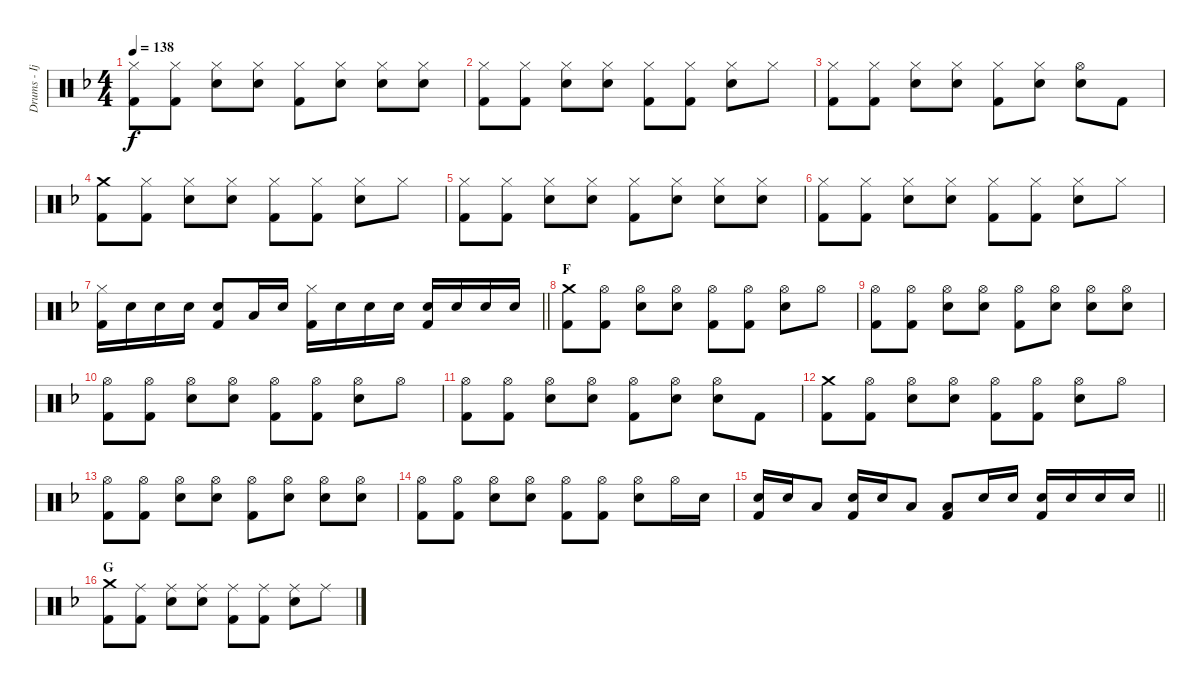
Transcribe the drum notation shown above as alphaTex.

\track ("Drums - Ijichi" "Drums - Ij") {instrument percussion}
\staff {score}
\articulation defaults
\ts (4 4)
\tempo 138
\clef neutral
\ks f
("Hi-Hat (closed)" "Kick (hit) 2").8{dy f} ("Hi-Hat (closed)" "Kick (hit) 2").8 ("Hi-Hat (closed)" "Electric Snare (hit)").8 ("Hi-Hat (closed)" "Electric Snare (hit)").8 ("Hi-Hat (closed)" "Kick (hit) 2").8 ("Hi-Hat (closed)" "Electric Snare (hit)").8 ("Hi-Hat (closed)" "Electric Snare (hit)").8 ("Hi-Hat (closed)" "Electric Snare (hit)").8 |
("Hi-Hat (closed)" "Kick (hit) 2").8 ("Hi-Hat (closed)" "Kick (hit) 2").8 ("Hi-Hat (closed)" "Electric Snare (hit)").8 ("Hi-Hat (closed)" "Electric Snare (hit)").8 ("Hi-Hat (closed)" "Kick (hit) 2").8 ("Hi-Hat (closed)" "Kick (hit) 2").8 ("Hi-Hat (closed)" "Electric Snare (hit)").8 "Hi-Hat (closed)".8 |
("Hi-Hat (closed)" "Kick (hit) 2").8 ("Hi-Hat (closed)" "Kick (hit) 2").8 ("Hi-Hat (closed)" "Electric Snare (hit)").8 ("Hi-Hat (closed)" "Electric Snare (hit)").8 ("Hi-Hat (closed)" "Kick (hit) 2").8 ("Hi-Hat (closed)" "Electric Snare (hit)").8 ("Hi-Hat (open)" "Electric Snare (hit)").8 "Kick (hit) 2".8 |
("Crash medium (hit)" "Kick (hit) 2").8 ("Hi-Hat (closed)" "Kick (hit) 2").8 ("Hi-Hat (closed)" "Electric Snare (hit)").8 ("Hi-Hat (closed)" "Electric Snare (hit)").8 ("Hi-Hat (closed)" "Kick (hit) 2").8 ("Hi-Hat (closed)" "Kick (hit) 2").8 ("Hi-Hat (closed)" "Electric Snare (hit)").8 "Hi-Hat (closed)".8 |
("Hi-Hat (closed)" "Kick (hit) 2").8 ("Hi-Hat (closed)" "Kick (hit) 2").8 ("Hi-Hat (closed)" "Electric Snare (hit)").8 ("Hi-Hat (closed)" "Electric Snare (hit)").8 ("Hi-Hat (closed)" "Kick (hit) 2").8 ("Hi-Hat (closed)" "Electric Snare (hit)").8 ("Hi-Hat (closed)" "Electric Snare (hit)").8 ("Hi-Hat (closed)" "Electric Snare (hit)").8 |
("Hi-Hat (closed)" "Kick (hit) 2").8 ("Hi-Hat (closed)" "Kick (hit) 2").8 ("Hi-Hat (closed)" "Electric Snare (hit)").8 ("Hi-Hat (closed)" "Electric Snare (hit)").8 ("Hi-Hat (closed)" "Kick (hit) 2").8 ("Hi-Hat (closed)" "Kick (hit) 2").8 ("Hi-Hat (closed)" "Electric Snare (hit)").8 "Hi-Hat (closed)".8 |
\barLineRight lightlight
("Hi-Hat (closed)" "Kick (hit) 2").16 "Electric Snare (hit)".16 "Electric Snare (hit)".16 "Electric Snare (hit)".16 ("Electric Snare (hit)" "Kick (hit) 2").8 "Low Tom (hit)".16 "Electric Snare (hit)".16 ("Hi-Hat (closed)" "Kick (hit) 2").16 "Electric Snare (hit)".16 "Electric Snare (hit)".16 "Electric Snare (hit)".16 ("Electric Snare (hit)" "Kick (hit) 2").16 "Electric Snare (hit)".16 "Electric Snare (hit)".16 "Electric Snare (hit)".16 |
\section ("" "F")
("Crash medium (hit)" "Kick (hit) 2").8 ("Hi-Hat (open)" "Kick (hit) 2").8 ("Hi-Hat (open)" "Electric Snare (hit)").8 ("Hi-Hat (open)" "Electric Snare (hit)").8 ("Hi-Hat (open)" "Kick (hit) 2").8 ("Hi-Hat (open)" "Kick (hit) 2").8 ("Hi-Hat (open)" "Electric Snare (hit)").8 "Hi-Hat (open)".8 |
("Hi-Hat (open)" "Kick (hit) 2").8 ("Hi-Hat (open)" "Kick (hit) 2").8 ("Hi-Hat (open)" "Electric Snare (hit)").8 ("Hi-Hat (open)" "Electric Snare (hit)").8 ("Hi-Hat (open)" "Kick (hit) 2").8 ("Hi-Hat (open)" "Electric Snare (hit)").8 ("Hi-Hat (open)" "Electric Snare (hit)").8 ("Hi-Hat (open)" "Electric Snare (hit)").8 |
("Hi-Hat (open)" "Kick (hit) 2").8 ("Hi-Hat (open)" "Kick (hit) 2").8 ("Hi-Hat (open)" "Electric Snare (hit)").8 ("Hi-Hat (open)" "Electric Snare (hit)").8 ("Hi-Hat (open)" "Kick (hit) 2").8 ("Hi-Hat (open)" "Kick (hit) 2").8 ("Hi-Hat (open)" "Electric Snare (hit)").8 "Hi-Hat (open)".8 |
("Hi-Hat (open)" "Kick (hit) 2").8 ("Hi-Hat (open)" "Kick (hit) 2").8 ("Hi-Hat (open)" "Electric Snare (hit)").8 ("Hi-Hat (open)" "Electric Snare (hit)").8 ("Hi-Hat (open)" "Kick (hit) 2").8 ("Hi-Hat (open)" "Electric Snare (hit)").8 ("Hi-Hat (open)" "Electric Snare (hit)").8 "Kick (hit) 2".8 |
("Crash medium (hit)" "Kick (hit) 2").8 ("Hi-Hat (open)" "Kick (hit) 2").8 ("Hi-Hat (open)" "Electric Snare (hit)").8 ("Hi-Hat (open)" "Electric Snare (hit)").8 ("Hi-Hat (open)" "Kick (hit) 2").8 ("Hi-Hat (open)" "Kick (hit) 2").8 ("Hi-Hat (open)" "Electric Snare (hit)").8 "Hi-Hat (open)".8 |
("Hi-Hat (open)" "Kick (hit) 2").8 ("Hi-Hat (open)" "Kick (hit) 2").8 ("Hi-Hat (open)" "Electric Snare (hit)").8 ("Hi-Hat (open)" "Electric Snare (hit)").8 ("Hi-Hat (open)" "Kick (hit) 2").8 ("Hi-Hat (open)" "Electric Snare (hit)").8 ("Hi-Hat (open)" "Electric Snare (hit)").8 ("Hi-Hat (open)" "Electric Snare (hit)").8 |
("Hi-Hat (open)" "Kick (hit) 2").8 ("Hi-Hat (open)" "Kick (hit) 2").8 ("Hi-Hat (open)" "Electric Snare (hit)").8 ("Hi-Hat (open)" "Electric Snare (hit)").8 ("Hi-Hat (open)" "Kick (hit) 2").8 ("Hi-Hat (open)" "Kick (hit) 2").8 ("Hi-Hat (open)" "Electric Snare (hit)").8 "Hi-Hat (open)".16 "Electric Snare (hit)".16 |
\barLineRight lightlight
("Electric Snare (hit)" "Kick (hit) 2").16 "Electric Snare (hit)".16 "Low Tom (hit)".8 ("Electric Snare (hit)" "Kick (hit) 2").16 "Electric Snare (hit)".16 "Low Tom (hit)".8 ("Low Tom (hit)" "Kick (hit) 2").8 "Electric Snare (hit)".16 "Electric Snare (hit)".16 ("Electric Snare (hit)" "Kick (hit) 2").16 "Electric Snare (hit)".16 "Electric Snare (hit)".16 "Electric Snare (hit)".16 |
\section ("" "G")
("Crash medium (hit)" "Kick (hit) 2").8 ("Ride (middle)" "Kick (hit) 2").8 ("Ride (middle)" "Electric Snare (hit)").8 ("Ride (middle)" "Electric Snare (hit)").8 ("Ride (middle)" "Kick (hit) 2").8 ("Ride (middle)" "Kick (hit) 2").8 ("Ride (middle)" "Electric Snare (hit)").8 "Ride (middle)".8
